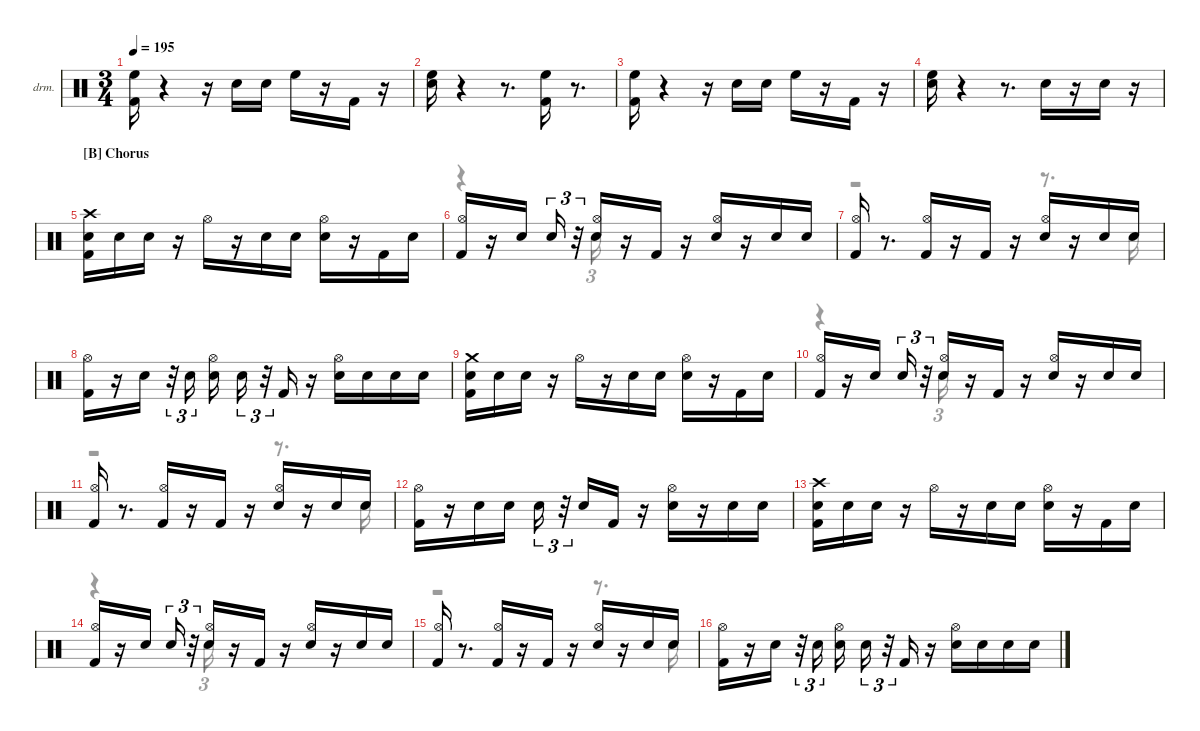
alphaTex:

\hideDynamics
\bracketExtendMode nobrackets
\firstSystemTrackNameOrientation horizontal
\track ("Drums" "drm.") {instrument percussion}
\staff {score}
\articulation defaults
\voice
\ts (3 4)
\tempo 195
\clef neutral
\ks aminor
("Kick (hit) 2" "High Floor Tom (hit)").16{dy ff} r.4 r.16 "Snare (hit) 2".16{dy mp} "Snare (hit) 2".16{dy pp} "High Floor Tom (hit)".16{dy mf} r.16 "Kick (hit) 2".16{dy f} r.16 |
("Snare (hit) 2" "High Floor Tom (hit)").16 r.4 r.8{d} ("Kick (hit) 2" "High Floor Tom (hit)").16{dy mf} r.8{d} |
("Kick (hit) 2" "High Floor Tom (hit)").16{dy ff} r.4 r.16 "Snare (hit) 2".16{dy mp} "Snare (hit) 2".16{dy pp} "High Floor Tom (hit)".16{dy mf} r.16 "Kick (hit) 2".16{dy f} r.16 |
("Snare (hit) 2" "High Floor Tom (hit)").16{dy ff} r.4 r.8{d} "Snare (hit) 2".16{dy f} r.16 "Snare (hit) 2".16{dy ppp} r.16 |
\section ("B" "Chorus")
("Kick (hit) 2" "Snare (hit) 2" "Crash high (hit)"{acc #}).16{dy ff} "Snare (hit) 2".16{dy pp} "Snare (hit) 2".16{dy ppp} r.16 "Hi-Hat (open)"{acc #}.16{dy mp} r.16 "Snare (hit) 2".16{dy ff} "Snare (hit) 2".16{dy pp} ("Snare (hit) 2" "Hi-Hat (open)"{acc #}).16{dy ppp} r.16 "Kick (hit) 2".16{dy p} "Snare (hit) 2".16{dy ppp} |
("Kick (hit) 2" "Hi-Hat (open)"{acc #}).16{dy ff} r.16 "Snare (hit) 2".16 "Snare (hit) 2".16{tu (3 2) dy pp} r.32{tu (3 2)} ("Snare (hit) 2" "Hi-Hat (open)"{acc #}).16{dy mf} r.16 "Kick (hit) 2".16{dy f} r.16 ("Snare (hit) 2" "Hi-Hat (open)"{acc #}).16{dy mf} r.16 "Snare (hit) 2".16{dy f} "Snare (hit) 2".16{dy ppp} |
("Kick (hit) 2" "Hi-Hat (open)"{acc #}).16{dy fff} r.8{d} ("Kick (hit) 2" "Hi-Hat (open)"{acc #}).16{dy mf} r.16 "Kick (hit) 2".16{dy ff} r.16 ("Snare (hit) 2" "Hi-Hat (open)"{acc #}).16 r.16 "Snare (hit) 2".16{dy pp} "Snare (hit) 2".16{dy ppp} |
("Kick (hit) 2" "Hi-Hat (open)"{acc #}).16{dy ff} r.16 "Snare (hit) 2".16{dy fff} r.32{tu (3 2)} "Snare (hit) 2".16{tu (3 2) dy pp} ("Snare (hit) 2" "Hi-Hat (open)"{acc #}).16{dy mp} "Snare (hit) 2".16{tu (3 2) dy ppp} r.32{tu (3 2)} "Kick (hit) 2".16{dy f} r.16 ("Snare (hit) 2" "Hi-Hat (open)"{acc #}).16{dy mf} "Snare (hit) 2".16{dy ppp} "Snare (hit) 2".16 "Snare (hit) 2".16 |
("Snare (hit) 2" "Crash medium (hit)" "Kick (hit) 2").16{dy ff} "Snare (hit) 2".16{dy pp} "Snare (hit) 2".16{dy ppp} r.16 "Hi-Hat (open)"{acc #}.16{dy mp} r.16 "Snare (hit) 2".16{dy ff} "Snare (hit) 2".16{dy pp} ("Snare (hit) 2" "Hi-Hat (open)"{acc #}).16{dy ppp} r.16 "Kick (hit) 2".16{dy p} "Snare (hit) 2".16{dy ppp} |
("Kick (hit) 2" "Hi-Hat (open)"{acc #}).16{dy ff} r.16 "Snare (hit) 2".16 "Snare (hit) 2".16{tu (3 2) dy pp} r.32{tu (3 2)} ("Snare (hit) 2" "Hi-Hat (open)"{acc #}).16{dy ppp} r.16 "Kick (hit) 2".16{dy f} r.16 ("Snare (hit) 2" "Hi-Hat (open)"{acc #}).16{dy ff} r.16 "Snare (hit) 2".16{dy f} "Snare (hit) 2".16{dy ppp} |
("Kick (hit) 2" "Hi-Hat (open)"{acc #}).16{dy fff} r.8{d} ("Kick (hit) 2" "Hi-Hat (open)"{acc #}).16{dy mp} r.16 "Kick (hit) 2".16{dy ff} r.16 ("Snare (hit) 2" "Hi-Hat (open)"{acc #}).16 r.16 "Snare (hit) 2".16{dy pp} "Snare (hit) 2".16{dy ppp} |
("Kick (hit) 2" "Hi-Hat (open)"{acc #}).16{dy fff} r.16 "Snare (hit) 2".16{dy mf} "Snare (hit) 2".16{dy p} "Snare (hit) 2".16{tu (3 2) dy fff} r.32{tu (3 2)} "Snare (hit) 2".16{dy ppp} "Kick (hit) 2".16{dy f} r.16 ("Snare (hit) 2" "Hi-Hat (open)"{acc #}).16{dy fff} r.16 "Snare (hit) 2".16{dy pp} "Snare (hit) 2".16{dy ppp} |
("Kick (hit) 2" "Snare (hit) 2" "Crash high (hit)"{acc #}).16{dy fff} "Snare (hit) 2".16{dy pp} "Snare (hit) 2".16{dy ppp} r.16 "Hi-Hat (open)"{acc #}.16{dy mp} r.16 "Snare (hit) 2".16{dy ff} "Snare (hit) 2".16{dy pp} ("Snare (hit) 2" "Hi-Hat (open)"{acc #}).16{dy mf} r.16 "Kick (hit) 2".16{dy p} "Snare (hit) 2".16{dy ppp} |
("Kick (hit) 2" "Hi-Hat (open)"{acc #}).16{dy fff} r.16 "Snare (hit) 2".16{dy ff} "Snare (hit) 2".16{tu (3 2) dy pp} r.32{tu (3 2)} ("Snare (hit) 2" "Hi-Hat (open)"{acc #}).16{dy mf} r.16 "Kick (hit) 2".16{dy f} r.16 ("Snare (hit) 2" "Hi-Hat (open)"{acc #}).16{dy ff} r.16 "Snare (hit) 2".16{dy f} "Snare (hit) 2".16{dy ppp} |
("Kick (hit) 2" "Hi-Hat (open)"{acc #}).16{dy fff} r.8{d} ("Kick (hit) 2" "Hi-Hat (open)"{acc #}).16{dy mp} r.16 "Kick (hit) 2".16{dy ff} r.16 ("Snare (hit) 2" "Hi-Hat (open)"{acc #}).16 r.16 "Snare (hit) 2".16{dy pp} "Snare (hit) 2".16{dy ppp} |
("Kick (hit) 2" "Hi-Hat (open)"{acc #}).16{dy ff} r.16 "Snare (hit) 2".16{dy fff} r.32{tu (3 2)} "Snare (hit) 2".16{tu (3 2) dy pp} ("Snare (hit) 2" "Hi-Hat (open)"{acc #}).16{dy ppp} "Snare (hit) 2".16{tu (3 2)} r.32{tu (3 2)} "Kick (hit) 2".16{dy f} r.16 ("Snare (hit) 2" "Hi-Hat (open)"{acc #}).16{dy fff} "Snare (hit) 2".16{dy ppp} "Snare (hit) 2".16 "Snare (hit) 2".16
\voice
\clef neutral
\ottava regular
\simile none
\ks aminor
|
|
|
|
|
r.4 "Snare (hit) 2".16{tu (3 2) dy ppp} |
r.2 r.8{d} "Snare (hit) 2".16 |
|
|
r.4 "Snare (hit) 2".16{tu (3 2)} |
r.2 r.8{d} "Snare (hit) 2".16 |
|
|
r.4 "Snare (hit) 2".16{tu (3 2)} |
r.2 r.8{d} "Snare (hit) 2".16 |
